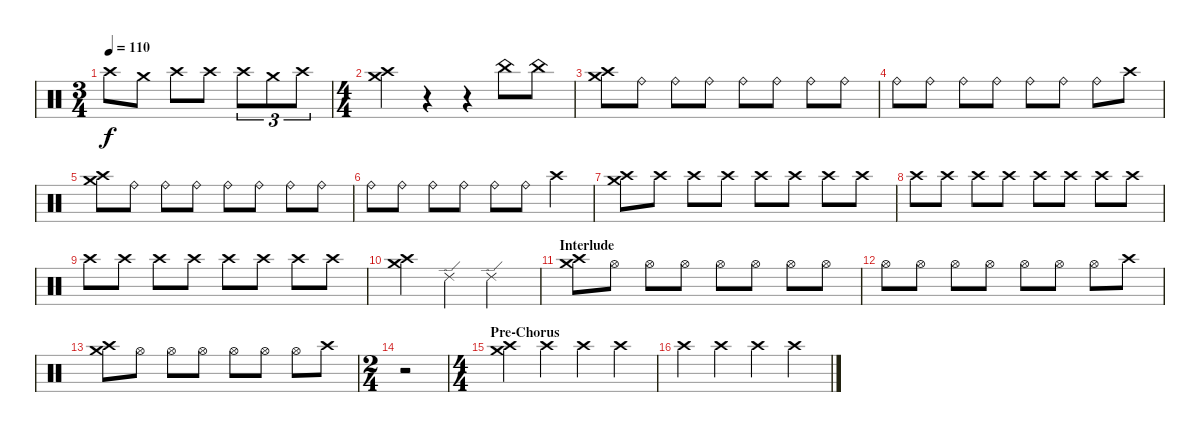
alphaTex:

\track "" {instrument percussion}
\staff {score}
\articulation defaults
\ts (3 4)
\tempo 110
\clef neutral
\ks c "Crash high (hit)".8{dy f} "Crash medium (hit)".8 "Crash high (hit)".8 "Crash high (hit)".8 "Crash high (hit)".8{tu (3 2)} "Crash medium (hit)".8{tu (3 2)} "Crash high (hit)".8{tu (3 2)}
|
\ts (4 4)
("Crash high (hit)" "Crash medium (hit)").4 r.4 r.4 "China (hit)".8 "China (hit)".8 |
("Crash medium (hit)" "Crash high (hit)").8 "Ride (bell)".8 "Ride (bell)".8 "Ride (bell)".8 "Ride (bell)".8 "Ride (bell)".8 "Ride (bell)".8 "Ride (bell)".8 |
"Ride (bell)".8 "Ride (bell)".8 "Ride (bell)".8 "Ride (bell)".8 "Ride (bell)".8 "Ride (bell)".8 "Ride (bell)".8 "Crash high (hit)".8 |
("Crash medium (hit)" "Crash high (hit)").8 "Ride (bell)".8 "Ride (bell)".8 "Ride (bell)".8 "Ride (bell)".8 "Ride (bell)".8 "Ride (bell)".8 "Ride (bell)".8 |
"Ride (bell)".8 "Ride (bell)".8 "Ride (bell)".8 "Ride (bell)".8 "Ride (bell)".8 "Ride (bell)".8 "Crash high (hit)".4 |
("Crash medium (hit)" "Crash high (hit)").8 "Crash high (hit)".8 "Crash high (hit)".8 "Crash high (hit)".8 "Crash high (hit)".8 "Crash high (hit)".8 "Crash high (hit)".8 "Crash high (hit)".8 |
"Crash high (hit)".8 "Crash high (hit)".8 "Crash high (hit)".8 "Crash high (hit)".8 "Crash high (hit)".8 "Crash high (hit)".8 "Crash high (hit)".8 "Crash high (hit)".8 |
"Crash high (hit)".8 "Crash high (hit)".8 "Crash high (hit)".8 "Crash high (hit)".8 "Crash high (hit)".8 "Crash high (hit)".8 "Crash high (hit)".8 "Crash high (hit)".8 |
("Crash medium (hit)" "Crash high (hit)").4 "Ride (edge) 2".4 "Ride (edge) 2".2 |
\section ("" "Interlude")
("Crash medium (hit)" "Crash high (hit)").8 "Hi-Hat (open)".8 "Hi-Hat (open)".8 "Hi-Hat (open)".8 "Hi-Hat (open)".8 "Hi-Hat (open)".8 "Hi-Hat (open)".8 "Hi-Hat (open)".8 |
"Hi-Hat (open)".8 "Hi-Hat (open)".8 "Hi-Hat (open)".8 "Hi-Hat (open)".8 "Hi-Hat (open)".8 "Hi-Hat (open)".8 "Hi-Hat (open)".8 "Crash high (hit)".8 |
("Crash high (hit)" "Crash medium (hit)").8 "Hi-Hat (open)".8 "Hi-Hat (open)".8 "Hi-Hat (open)".8 "Hi-Hat (open)".8 "Hi-Hat (open)".8 "Hi-Hat (open)".8 "Crash high (hit)".8 |
\ts (2 4)
r.2 |
\ts (4 4)
\section ("" "Pre-Chorus")
("Crash medium (hit)" "Crash high (hit)").4 "Crash high (hit)".4 "Crash high (hit)".4 "Crash high (hit)".4 |
"Crash high (hit)".4 "Crash high (hit)".4 "Crash high (hit)".4 "Crash high (hit)".4
